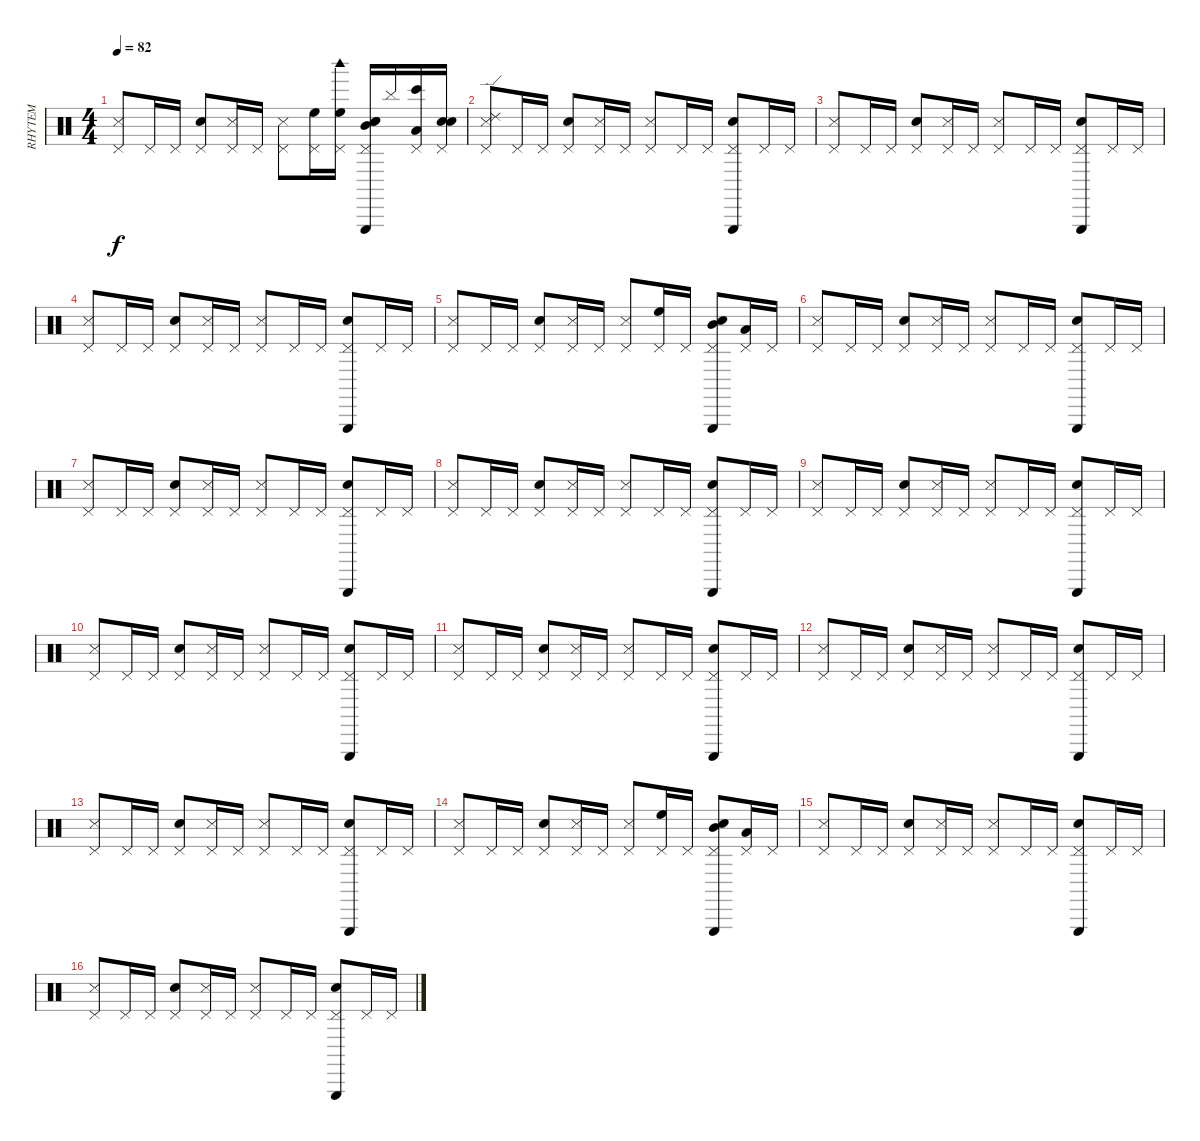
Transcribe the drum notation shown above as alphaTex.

\track ("RHYTEM" "RHYTEM") {instrument percussion}
\staff {score}
\articulation defaults
\ts (4 4)
\tempo 82
\clef neutral
\ks c
("Pedal Hi-Hat (hit)" "Metronome (hit)").8{dy f} "Pedal Hi-Hat (hit)".16 "Pedal Hi-Hat (hit)".16 ("Electric Snare (hit)" "Pedal Hi-Hat (hit)").8 ("Pedal Hi-Hat (hit)" "Metronome (hit)").16 "Pedal Hi-Hat (hit)".16 ("Pedal Hi-Hat (hit)" "Metronome (hit)").8 ("High Floor Tom (hit)" "Pedal Hi-Hat (hit)").16 ("Woodblock high (hit)" "High Floor Tom (hit)" "Pedal Hi-Hat (hit)").16 ("Snare (hit)" "Mid Tom (hit)" "Triangle (hit)" "Electric Snare (hit)" "Pedal Hi-Hat (hit)").16 "Cymbal (hit)".16 ("Bongo High (hit)" "Low Tom (hit)" "Pedal Hi-Hat (hit)").16 ("Snare (hit)" "Snare (hit)" "Pedal Hi-Hat (hit)").16 |
("Ride (edge) 2" "Pedal Hi-Hat (hit)" "Metronome (hit)").8 "Pedal Hi-Hat (hit)".16 "Pedal Hi-Hat (hit)".16 ("Electric Snare (hit)" "Pedal Hi-Hat (hit)").8 ("Pedal Hi-Hat (hit)" "Metronome (hit)").16 "Pedal Hi-Hat (hit)".16 ("Pedal Hi-Hat (hit)" "Metronome (hit)").8 "Pedal Hi-Hat (hit)".16 "Pedal Hi-Hat (hit)".16 ("Triangle (hit)" "Electric Snare (hit)" "Pedal Hi-Hat (hit)").8 "Pedal Hi-Hat (hit)".16 "Pedal Hi-Hat (hit)".16 |
("Pedal Hi-Hat (hit)" "Metronome (hit)").8 "Pedal Hi-Hat (hit)".16 "Pedal Hi-Hat (hit)".16 ("Electric Snare (hit)" "Pedal Hi-Hat (hit)").8 ("Pedal Hi-Hat (hit)" "Metronome (hit)").16 "Pedal Hi-Hat (hit)".16 ("Pedal Hi-Hat (hit)" "Metronome (hit)").8 "Pedal Hi-Hat (hit)".16 "Pedal Hi-Hat (hit)".16 ("Triangle (hit)" "Electric Snare (hit)" "Pedal Hi-Hat (hit)").8 "Pedal Hi-Hat (hit)".16 "Pedal Hi-Hat (hit)".16 |
("Pedal Hi-Hat (hit)" "Metronome (hit)").8 "Pedal Hi-Hat (hit)".16 "Pedal Hi-Hat (hit)".16 ("Electric Snare (hit)" "Pedal Hi-Hat (hit)").8 ("Pedal Hi-Hat (hit)" "Metronome (hit)").16 "Pedal Hi-Hat (hit)".16 ("Pedal Hi-Hat (hit)" "Metronome (hit)").8 "Pedal Hi-Hat (hit)".16 "Pedal Hi-Hat (hit)".16 ("Triangle (hit)" "Electric Snare (hit)" "Pedal Hi-Hat (hit)").8 "Pedal Hi-Hat (hit)".16 "Pedal Hi-Hat (hit)".16 |
("Pedal Hi-Hat (hit)" "Metronome (hit)").8 "Pedal Hi-Hat (hit)".16 "Pedal Hi-Hat (hit)".16 ("Electric Snare (hit)" "Pedal Hi-Hat (hit)").8 ("Pedal Hi-Hat (hit)" "Metronome (hit)").16 "Pedal Hi-Hat (hit)".16 ("Pedal Hi-Hat (hit)" "Metronome (hit)").8 ("High Floor Tom (hit)" "Pedal Hi-Hat (hit)").16 "Pedal Hi-Hat (hit)".16 ("Mid Tom (hit)" "Triangle (hit)" "Electric Snare (hit)" "Pedal Hi-Hat (hit)").8 ("Low Tom (hit)" "Pedal Hi-Hat (hit)").16 "Pedal Hi-Hat (hit)".16 |
("Pedal Hi-Hat (hit)" "Metronome (hit)").8 "Pedal Hi-Hat (hit)".16 "Pedal Hi-Hat (hit)".16 ("Electric Snare (hit)" "Pedal Hi-Hat (hit)").8 ("Pedal Hi-Hat (hit)" "Metronome (hit)").16 "Pedal Hi-Hat (hit)".16 ("Pedal Hi-Hat (hit)" "Metronome (hit)").8 "Pedal Hi-Hat (hit)".16 "Pedal Hi-Hat (hit)".16 ("Triangle (hit)" "Electric Snare (hit)" "Pedal Hi-Hat (hit)").8 "Pedal Hi-Hat (hit)".16 "Pedal Hi-Hat (hit)".16 |
("Pedal Hi-Hat (hit)" "Metronome (hit)").8 "Pedal Hi-Hat (hit)".16 "Pedal Hi-Hat (hit)".16 ("Electric Snare (hit)" "Pedal Hi-Hat (hit)").8 ("Pedal Hi-Hat (hit)" "Metronome (hit)").16 "Pedal Hi-Hat (hit)".16 ("Pedal Hi-Hat (hit)" "Metronome (hit)").8 "Pedal Hi-Hat (hit)".16 "Pedal Hi-Hat (hit)".16 ("Triangle (hit)" "Electric Snare (hit)" "Pedal Hi-Hat (hit)").8 "Pedal Hi-Hat (hit)".16 "Pedal Hi-Hat (hit)".16 |
("Pedal Hi-Hat (hit)" "Metronome (hit)").8 "Pedal Hi-Hat (hit)".16 "Pedal Hi-Hat (hit)".16 ("Electric Snare (hit)" "Pedal Hi-Hat (hit)").8 ("Pedal Hi-Hat (hit)" "Metronome (hit)").16 "Pedal Hi-Hat (hit)".16 ("Pedal Hi-Hat (hit)" "Metronome (hit)").8 "Pedal Hi-Hat (hit)".16 "Pedal Hi-Hat (hit)".16 ("Triangle (hit)" "Electric Snare (hit)" "Pedal Hi-Hat (hit)").8 "Pedal Hi-Hat (hit)".16 "Pedal Hi-Hat (hit)".16 |
("Pedal Hi-Hat (hit)" "Metronome (hit)").8 "Pedal Hi-Hat (hit)".16 "Pedal Hi-Hat (hit)".16 ("Electric Snare (hit)" "Pedal Hi-Hat (hit)").8 ("Pedal Hi-Hat (hit)" "Metronome (hit)").16 "Pedal Hi-Hat (hit)".16 ("Pedal Hi-Hat (hit)" "Metronome (hit)").8 "Pedal Hi-Hat (hit)".16 "Pedal Hi-Hat (hit)".16 ("Triangle (hit)" "Electric Snare (hit)" "Pedal Hi-Hat (hit)").8 "Pedal Hi-Hat (hit)".16 "Pedal Hi-Hat (hit)".16 |
("Pedal Hi-Hat (hit)" "Metronome (hit)").8 "Pedal Hi-Hat (hit)".16 "Pedal Hi-Hat (hit)".16 ("Electric Snare (hit)" "Pedal Hi-Hat (hit)").8 ("Pedal Hi-Hat (hit)" "Metronome (hit)").16 "Pedal Hi-Hat (hit)".16 ("Pedal Hi-Hat (hit)" "Metronome (hit)").8 "Pedal Hi-Hat (hit)".16 "Pedal Hi-Hat (hit)".16 ("Triangle (hit)" "Electric Snare (hit)" "Pedal Hi-Hat (hit)").8 "Pedal Hi-Hat (hit)".16 "Pedal Hi-Hat (hit)".16 |
("Pedal Hi-Hat (hit)" "Metronome (hit)").8 "Pedal Hi-Hat (hit)".16 "Pedal Hi-Hat (hit)".16 ("Electric Snare (hit)" "Pedal Hi-Hat (hit)").8 ("Pedal Hi-Hat (hit)" "Metronome (hit)").16 "Pedal Hi-Hat (hit)".16 ("Pedal Hi-Hat (hit)" "Metronome (hit)").8 "Pedal Hi-Hat (hit)".16 "Pedal Hi-Hat (hit)".16 ("Triangle (hit)" "Electric Snare (hit)" "Pedal Hi-Hat (hit)").8 "Pedal Hi-Hat (hit)".16 "Pedal Hi-Hat (hit)".16 |
("Pedal Hi-Hat (hit)" "Metronome (hit)").8 "Pedal Hi-Hat (hit)".16 "Pedal Hi-Hat (hit)".16 ("Electric Snare (hit)" "Pedal Hi-Hat (hit)").8 ("Pedal Hi-Hat (hit)" "Metronome (hit)").16 "Pedal Hi-Hat (hit)".16 ("Pedal Hi-Hat (hit)" "Metronome (hit)").8 "Pedal Hi-Hat (hit)".16 "Pedal Hi-Hat (hit)".16 ("Triangle (hit)" "Electric Snare (hit)" "Pedal Hi-Hat (hit)").8 "Pedal Hi-Hat (hit)".16 "Pedal Hi-Hat (hit)".16 |
("Pedal Hi-Hat (hit)" "Metronome (hit)").8 "Pedal Hi-Hat (hit)".16 "Pedal Hi-Hat (hit)".16 ("Electric Snare (hit)" "Pedal Hi-Hat (hit)").8 ("Pedal Hi-Hat (hit)" "Metronome (hit)").16 "Pedal Hi-Hat (hit)".16 ("Pedal Hi-Hat (hit)" "Metronome (hit)").8 "Pedal Hi-Hat (hit)".16 "Pedal Hi-Hat (hit)".16 ("Triangle (hit)" "Electric Snare (hit)" "Pedal Hi-Hat (hit)").8 "Pedal Hi-Hat (hit)".16 "Pedal Hi-Hat (hit)".16 |
("Pedal Hi-Hat (hit)" "Metronome (hit)").8 "Pedal Hi-Hat (hit)".16 "Pedal Hi-Hat (hit)".16 ("Electric Snare (hit)" "Pedal Hi-Hat (hit)").8 ("Pedal Hi-Hat (hit)" "Metronome (hit)").16 "Pedal Hi-Hat (hit)".16 ("Pedal Hi-Hat (hit)" "Metronome (hit)").8 ("High Floor Tom (hit)" "Pedal Hi-Hat (hit)").16 "Pedal Hi-Hat (hit)".16 ("Mid Tom (hit)" "Triangle (hit)" "Electric Snare (hit)" "Pedal Hi-Hat (hit)").8 ("Low Tom (hit)" "Pedal Hi-Hat (hit)").16 "Pedal Hi-Hat (hit)".16 |
("Pedal Hi-Hat (hit)" "Metronome (hit)").8 "Pedal Hi-Hat (hit)".16 "Pedal Hi-Hat (hit)".16 ("Electric Snare (hit)" "Pedal Hi-Hat (hit)").8 ("Pedal Hi-Hat (hit)" "Metronome (hit)").16 "Pedal Hi-Hat (hit)".16 ("Pedal Hi-Hat (hit)" "Metronome (hit)").8 "Pedal Hi-Hat (hit)".16 "Pedal Hi-Hat (hit)".16 ("Triangle (hit)" "Electric Snare (hit)" "Pedal Hi-Hat (hit)").8 "Pedal Hi-Hat (hit)".16 "Pedal Hi-Hat (hit)".16 |
("Pedal Hi-Hat (hit)" "Metronome (hit)").8 "Pedal Hi-Hat (hit)".16 "Pedal Hi-Hat (hit)".16 ("Electric Snare (hit)" "Pedal Hi-Hat (hit)").8 ("Pedal Hi-Hat (hit)" "Metronome (hit)").16 "Pedal Hi-Hat (hit)".16 ("Pedal Hi-Hat (hit)" "Metronome (hit)").8 "Pedal Hi-Hat (hit)".16 "Pedal Hi-Hat (hit)".16 ("Triangle (hit)" "Electric Snare (hit)" "Pedal Hi-Hat (hit)").8 "Pedal Hi-Hat (hit)".16 "Pedal Hi-Hat (hit)".16
